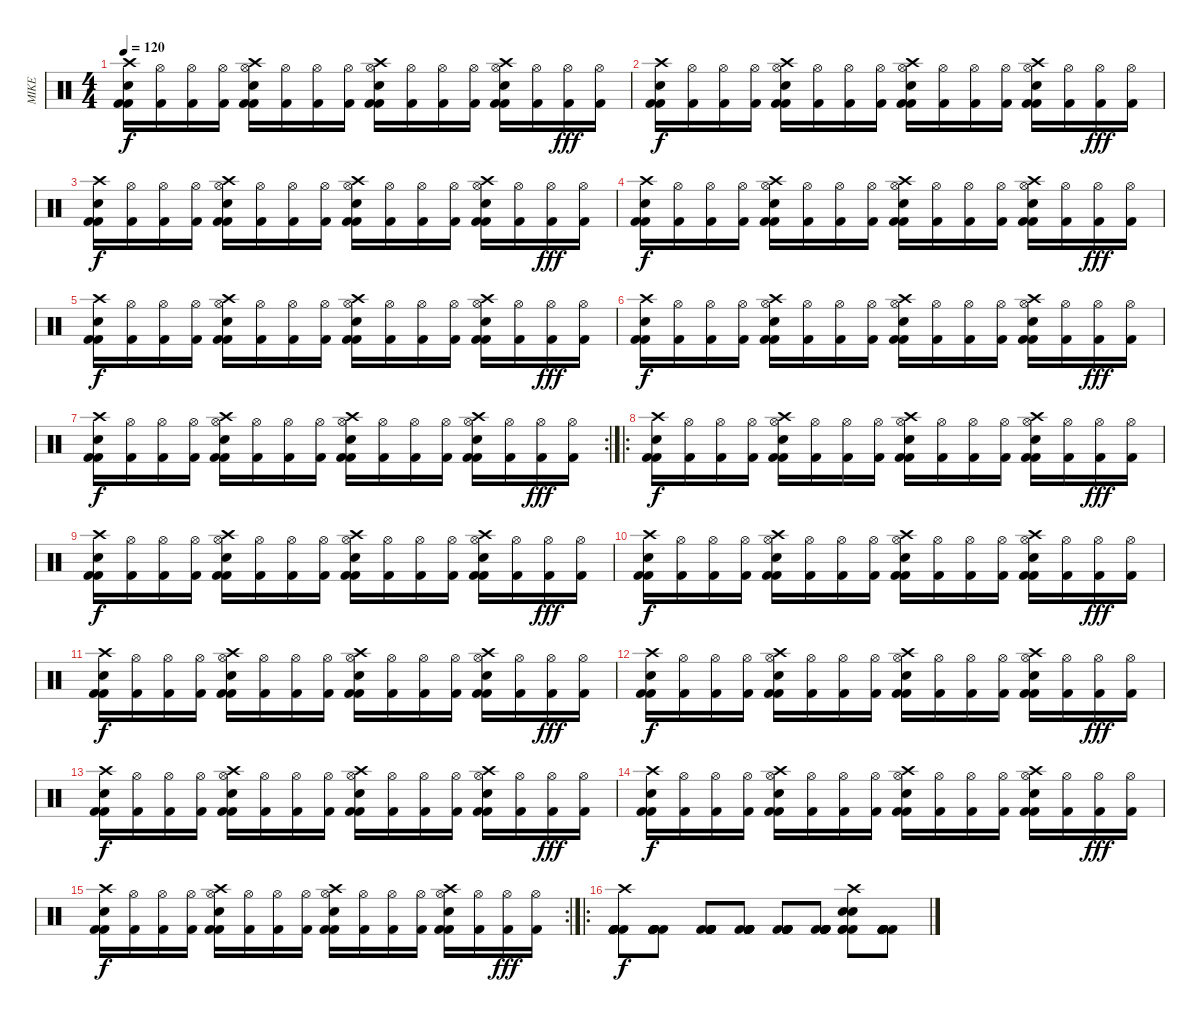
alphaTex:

\track ("MIKE" "MIKE") {instrument percussion}
\staff {score}
\articulation defaults
\ts (4 4)
\tempo 120
\clef neutral
\ks c
("Crash high (hit)" "Kick (hit) 2" "Electric Snare (hit)" "Kick (hit) 2").16{dy f} ("Hi-Hat (open)" "Kick (hit) 2").16 ("Hi-Hat (open)" "Kick (hit) 2").16 ("Hi-Hat (open)" "Kick (hit) 2").16 ("Hi-Hat (open)" "Crash high (hit)" "Kick (hit) 2" "Electric Snare (hit)" "Kick (hit) 2").16 ("Hi-Hat (open)" "Kick (hit) 2").16 ("Hi-Hat (open)" "Kick (hit) 2").16 ("Hi-Hat (open)" "Kick (hit) 2").16 ("Hi-Hat (open)" "Crash high (hit)" "Kick (hit) 2" "Electric Snare (hit)" "Kick (hit) 2").16 ("Hi-Hat (open)" "Kick (hit) 2").16 ("Hi-Hat (open)" "Kick (hit) 2").16 ("Hi-Hat (open)" "Kick (hit) 2").16 ("Hi-Hat (open)" "Crash high (hit)" "Kick (hit) 2" "Electric Snare (hit)" "Kick (hit) 2").16 ("Hi-Hat (open)" "Kick (hit) 2").16 ("Hi-Hat (open)" "Kick (hit) 2").16{dy fff} ("Hi-Hat (open)" "Kick (hit) 2").16 |
("Crash high (hit)" "Kick (hit) 2" "Electric Snare (hit)" "Kick (hit) 2").16{dy f} ("Hi-Hat (open)" "Kick (hit) 2").16 ("Hi-Hat (open)" "Kick (hit) 2").16 ("Hi-Hat (open)" "Kick (hit) 2").16 ("Hi-Hat (open)" "Crash high (hit)" "Kick (hit) 2" "Electric Snare (hit)" "Kick (hit) 2").16 ("Hi-Hat (open)" "Kick (hit) 2").16 ("Hi-Hat (open)" "Kick (hit) 2").16 ("Hi-Hat (open)" "Kick (hit) 2").16 ("Hi-Hat (open)" "Crash high (hit)" "Kick (hit) 2" "Electric Snare (hit)" "Kick (hit) 2").16 ("Hi-Hat (open)" "Kick (hit) 2").16 ("Hi-Hat (open)" "Kick (hit) 2").16 ("Hi-Hat (open)" "Kick (hit) 2").16 ("Hi-Hat (open)" "Crash high (hit)" "Kick (hit) 2" "Electric Snare (hit)" "Kick (hit) 2").16 ("Hi-Hat (open)" "Kick (hit) 2").16 ("Hi-Hat (open)" "Kick (hit) 2").16{dy fff} ("Hi-Hat (open)" "Kick (hit) 2").16 |
("Crash high (hit)" "Kick (hit) 2" "Electric Snare (hit)" "Kick (hit) 2").16{dy f} ("Hi-Hat (open)" "Kick (hit) 2").16 ("Hi-Hat (open)" "Kick (hit) 2").16 ("Hi-Hat (open)" "Kick (hit) 2").16 ("Hi-Hat (open)" "Crash high (hit)" "Kick (hit) 2" "Electric Snare (hit)" "Kick (hit) 2").16 ("Hi-Hat (open)" "Kick (hit) 2").16 ("Hi-Hat (open)" "Kick (hit) 2").16 ("Hi-Hat (open)" "Kick (hit) 2").16 ("Hi-Hat (open)" "Crash high (hit)" "Kick (hit) 2" "Electric Snare (hit)" "Kick (hit) 2").16 ("Hi-Hat (open)" "Kick (hit) 2").16 ("Hi-Hat (open)" "Kick (hit) 2").16 ("Hi-Hat (open)" "Kick (hit) 2").16 ("Hi-Hat (open)" "Crash high (hit)" "Kick (hit) 2" "Electric Snare (hit)" "Kick (hit) 2").16 ("Hi-Hat (open)" "Kick (hit) 2").16 ("Hi-Hat (open)" "Kick (hit) 2").16{dy fff} ("Hi-Hat (open)" "Kick (hit) 2").16 |
("Crash high (hit)" "Kick (hit) 2" "Electric Snare (hit)" "Kick (hit) 2").16{dy f} ("Hi-Hat (open)" "Kick (hit) 2").16 ("Hi-Hat (open)" "Kick (hit) 2").16 ("Hi-Hat (open)" "Kick (hit) 2").16 ("Hi-Hat (open)" "Crash high (hit)" "Kick (hit) 2" "Electric Snare (hit)" "Kick (hit) 2").16 ("Hi-Hat (open)" "Kick (hit) 2").16 ("Hi-Hat (open)" "Kick (hit) 2").16 ("Hi-Hat (open)" "Kick (hit) 2").16 ("Hi-Hat (open)" "Crash high (hit)" "Kick (hit) 2" "Electric Snare (hit)" "Kick (hit) 2").16 ("Hi-Hat (open)" "Kick (hit) 2").16 ("Hi-Hat (open)" "Kick (hit) 2").16 ("Hi-Hat (open)" "Kick (hit) 2").16 ("Hi-Hat (open)" "Crash high (hit)" "Kick (hit) 2" "Electric Snare (hit)" "Kick (hit) 2").16 ("Hi-Hat (open)" "Kick (hit) 2").16 ("Hi-Hat (open)" "Kick (hit) 2").16{dy fff} ("Hi-Hat (open)" "Kick (hit) 2").16 |
("Crash high (hit)" "Kick (hit) 2" "Electric Snare (hit)" "Kick (hit) 2").16{dy f} ("Hi-Hat (open)" "Kick (hit) 2").16 ("Hi-Hat (open)" "Kick (hit) 2").16 ("Hi-Hat (open)" "Kick (hit) 2").16 ("Hi-Hat (open)" "Crash high (hit)" "Kick (hit) 2" "Electric Snare (hit)" "Kick (hit) 2").16 ("Hi-Hat (open)" "Kick (hit) 2").16 ("Hi-Hat (open)" "Kick (hit) 2").16 ("Hi-Hat (open)" "Kick (hit) 2").16 ("Hi-Hat (open)" "Crash high (hit)" "Kick (hit) 2" "Electric Snare (hit)" "Kick (hit) 2").16 ("Hi-Hat (open)" "Kick (hit) 2").16 ("Hi-Hat (open)" "Kick (hit) 2").16 ("Hi-Hat (open)" "Kick (hit) 2").16 ("Hi-Hat (open)" "Crash high (hit)" "Kick (hit) 2" "Electric Snare (hit)" "Kick (hit) 2").16 ("Hi-Hat (open)" "Kick (hit) 2").16 ("Hi-Hat (open)" "Kick (hit) 2").16{dy fff} ("Hi-Hat (open)" "Kick (hit) 2").16 |
("Crash high (hit)" "Kick (hit) 2" "Electric Snare (hit)" "Kick (hit) 2").16{dy f} ("Hi-Hat (open)" "Kick (hit) 2").16 ("Hi-Hat (open)" "Kick (hit) 2").16 ("Hi-Hat (open)" "Kick (hit) 2").16 ("Hi-Hat (open)" "Crash high (hit)" "Kick (hit) 2" "Electric Snare (hit)" "Kick (hit) 2").16 ("Hi-Hat (open)" "Kick (hit) 2").16 ("Hi-Hat (open)" "Kick (hit) 2").16 ("Hi-Hat (open)" "Kick (hit) 2").16 ("Hi-Hat (open)" "Crash high (hit)" "Kick (hit) 2" "Electric Snare (hit)" "Kick (hit) 2").16 ("Hi-Hat (open)" "Kick (hit) 2").16 ("Hi-Hat (open)" "Kick (hit) 2").16 ("Hi-Hat (open)" "Kick (hit) 2").16 ("Hi-Hat (open)" "Crash high (hit)" "Kick (hit) 2" "Electric Snare (hit)" "Kick (hit) 2").16 ("Hi-Hat (open)" "Kick (hit) 2").16 ("Hi-Hat (open)" "Kick (hit) 2").16{dy fff} ("Hi-Hat (open)" "Kick (hit) 2").16 |
\rc 2
("Crash high (hit)" "Kick (hit) 2" "Electric Snare (hit)" "Kick (hit) 2").16{dy f} ("Hi-Hat (open)" "Kick (hit) 2").16 ("Hi-Hat (open)" "Kick (hit) 2").16 ("Hi-Hat (open)" "Kick (hit) 2").16 ("Hi-Hat (open)" "Crash high (hit)" "Kick (hit) 2" "Electric Snare (hit)" "Kick (hit) 2").16 ("Hi-Hat (open)" "Kick (hit) 2").16 ("Hi-Hat (open)" "Kick (hit) 2").16 ("Hi-Hat (open)" "Kick (hit) 2").16 ("Hi-Hat (open)" "Crash high (hit)" "Kick (hit) 2" "Electric Snare (hit)" "Kick (hit) 2").16 ("Hi-Hat (open)" "Kick (hit) 2").16 ("Hi-Hat (open)" "Kick (hit) 2").16 ("Hi-Hat (open)" "Kick (hit) 2").16 ("Hi-Hat (open)" "Crash high (hit)" "Kick (hit) 2" "Electric Snare (hit)" "Kick (hit) 2").16 ("Hi-Hat (open)" "Kick (hit) 2").16 ("Hi-Hat (open)" "Kick (hit) 2").16{dy fff} ("Hi-Hat (open)" "Kick (hit) 2").16 |
\ro
("Crash high (hit)" "Kick (hit) 2" "Electric Snare (hit)" "Kick (hit) 2").16{dy f} ("Hi-Hat (open)" "Kick (hit) 2").16 ("Hi-Hat (open)" "Kick (hit) 2").16 ("Hi-Hat (open)" "Kick (hit) 2").16 ("Hi-Hat (open)" "Crash high (hit)" "Kick (hit) 2" "Electric Snare (hit)" "Kick (hit) 2").16 ("Hi-Hat (open)" "Kick (hit) 2").16 ("Hi-Hat (open)" "Kick (hit) 2").16 ("Hi-Hat (open)" "Kick (hit) 2").16 ("Hi-Hat (open)" "Crash high (hit)" "Kick (hit) 2" "Electric Snare (hit)" "Kick (hit) 2").16 ("Hi-Hat (open)" "Kick (hit) 2").16 ("Hi-Hat (open)" "Kick (hit) 2").16 ("Hi-Hat (open)" "Kick (hit) 2").16 ("Hi-Hat (open)" "Crash high (hit)" "Kick (hit) 2" "Electric Snare (hit)" "Kick (hit) 2").16 ("Hi-Hat (open)" "Kick (hit) 2").16 ("Hi-Hat (open)" "Kick (hit) 2").16{dy fff} ("Hi-Hat (open)" "Kick (hit) 2").16 |
("Crash high (hit)" "Kick (hit) 2" "Electric Snare (hit)" "Kick (hit) 2").16{dy f} ("Hi-Hat (open)" "Kick (hit) 2").16 ("Hi-Hat (open)" "Kick (hit) 2").16 ("Hi-Hat (open)" "Kick (hit) 2").16 ("Hi-Hat (open)" "Crash high (hit)" "Kick (hit) 2" "Electric Snare (hit)" "Kick (hit) 2").16 ("Hi-Hat (open)" "Kick (hit) 2").16 ("Hi-Hat (open)" "Kick (hit) 2").16 ("Hi-Hat (open)" "Kick (hit) 2").16 ("Hi-Hat (open)" "Crash high (hit)" "Kick (hit) 2" "Electric Snare (hit)" "Kick (hit) 2").16 ("Hi-Hat (open)" "Kick (hit) 2").16 ("Hi-Hat (open)" "Kick (hit) 2").16 ("Hi-Hat (open)" "Kick (hit) 2").16 ("Hi-Hat (open)" "Crash high (hit)" "Kick (hit) 2" "Electric Snare (hit)" "Kick (hit) 2").16 ("Hi-Hat (open)" "Kick (hit) 2").16 ("Hi-Hat (open)" "Kick (hit) 2").16{dy fff} ("Hi-Hat (open)" "Kick (hit) 2").16 |
("Crash high (hit)" "Kick (hit) 2" "Electric Snare (hit)" "Kick (hit) 2").16{dy f} ("Hi-Hat (open)" "Kick (hit) 2").16 ("Hi-Hat (open)" "Kick (hit) 2").16 ("Hi-Hat (open)" "Kick (hit) 2").16 ("Hi-Hat (open)" "Crash high (hit)" "Kick (hit) 2" "Electric Snare (hit)" "Kick (hit) 2").16 ("Hi-Hat (open)" "Kick (hit) 2").16 ("Hi-Hat (open)" "Kick (hit) 2").16 ("Hi-Hat (open)" "Kick (hit) 2").16 ("Hi-Hat (open)" "Crash high (hit)" "Kick (hit) 2" "Electric Snare (hit)" "Kick (hit) 2").16 ("Hi-Hat (open)" "Kick (hit) 2").16 ("Hi-Hat (open)" "Kick (hit) 2").16 ("Hi-Hat (open)" "Kick (hit) 2").16 ("Hi-Hat (open)" "Crash high (hit)" "Kick (hit) 2" "Electric Snare (hit)" "Kick (hit) 2").16 ("Hi-Hat (open)" "Kick (hit) 2").16 ("Hi-Hat (open)" "Kick (hit) 2").16{dy fff} ("Hi-Hat (open)" "Kick (hit) 2").16 |
("Crash high (hit)" "Kick (hit) 2" "Electric Snare (hit)" "Kick (hit) 2").16{dy f} ("Hi-Hat (open)" "Kick (hit) 2").16 ("Hi-Hat (open)" "Kick (hit) 2").16 ("Hi-Hat (open)" "Kick (hit) 2").16 ("Hi-Hat (open)" "Crash high (hit)" "Kick (hit) 2" "Electric Snare (hit)" "Kick (hit) 2").16 ("Hi-Hat (open)" "Kick (hit) 2").16 ("Hi-Hat (open)" "Kick (hit) 2").16 ("Hi-Hat (open)" "Kick (hit) 2").16 ("Hi-Hat (open)" "Crash high (hit)" "Kick (hit) 2" "Electric Snare (hit)" "Kick (hit) 2").16 ("Hi-Hat (open)" "Kick (hit) 2").16 ("Hi-Hat (open)" "Kick (hit) 2").16 ("Hi-Hat (open)" "Kick (hit) 2").16 ("Hi-Hat (open)" "Crash high (hit)" "Kick (hit) 2" "Electric Snare (hit)" "Kick (hit) 2").16 ("Hi-Hat (open)" "Kick (hit) 2").16 ("Hi-Hat (open)" "Kick (hit) 2").16{dy fff} ("Hi-Hat (open)" "Kick (hit) 2").16 |
("Crash high (hit)" "Kick (hit) 2" "Electric Snare (hit)" "Kick (hit) 2").16{dy f} ("Hi-Hat (open)" "Kick (hit) 2").16 ("Hi-Hat (open)" "Kick (hit) 2").16 ("Hi-Hat (open)" "Kick (hit) 2").16 ("Hi-Hat (open)" "Crash high (hit)" "Kick (hit) 2" "Electric Snare (hit)" "Kick (hit) 2").16 ("Hi-Hat (open)" "Kick (hit) 2").16 ("Hi-Hat (open)" "Kick (hit) 2").16 ("Hi-Hat (open)" "Kick (hit) 2").16 ("Hi-Hat (open)" "Crash high (hit)" "Kick (hit) 2" "Electric Snare (hit)" "Kick (hit) 2").16 ("Hi-Hat (open)" "Kick (hit) 2").16 ("Hi-Hat (open)" "Kick (hit) 2").16 ("Hi-Hat (open)" "Kick (hit) 2").16 ("Hi-Hat (open)" "Crash high (hit)" "Kick (hit) 2" "Electric Snare (hit)" "Kick (hit) 2").16 ("Hi-Hat (open)" "Kick (hit) 2").16 ("Hi-Hat (open)" "Kick (hit) 2").16{dy fff} ("Hi-Hat (open)" "Kick (hit) 2").16 |
("Crash high (hit)" "Kick (hit) 2" "Electric Snare (hit)" "Kick (hit) 2").16{dy f} ("Hi-Hat (open)" "Kick (hit) 2").16 ("Hi-Hat (open)" "Kick (hit) 2").16 ("Hi-Hat (open)" "Kick (hit) 2").16 ("Hi-Hat (open)" "Crash high (hit)" "Kick (hit) 2" "Electric Snare (hit)" "Kick (hit) 2").16 ("Hi-Hat (open)" "Kick (hit) 2").16 ("Hi-Hat (open)" "Kick (hit) 2").16 ("Hi-Hat (open)" "Kick (hit) 2").16 ("Hi-Hat (open)" "Crash high (hit)" "Kick (hit) 2" "Electric Snare (hit)" "Kick (hit) 2").16 ("Hi-Hat (open)" "Kick (hit) 2").16 ("Hi-Hat (open)" "Kick (hit) 2").16 ("Hi-Hat (open)" "Kick (hit) 2").16 ("Hi-Hat (open)" "Crash high (hit)" "Kick (hit) 2" "Electric Snare (hit)" "Kick (hit) 2").16 ("Hi-Hat (open)" "Kick (hit) 2").16 ("Hi-Hat (open)" "Kick (hit) 2").16{dy fff} ("Hi-Hat (open)" "Kick (hit) 2").16 |
("Crash high (hit)" "Kick (hit) 2" "Electric Snare (hit)" "Kick (hit) 2").16{dy f} ("Hi-Hat (open)" "Kick (hit) 2").16 ("Hi-Hat (open)" "Kick (hit) 2").16 ("Hi-Hat (open)" "Kick (hit) 2").16 ("Hi-Hat (open)" "Crash high (hit)" "Kick (hit) 2" "Electric Snare (hit)" "Kick (hit) 2").16 ("Hi-Hat (open)" "Kick (hit) 2").16 ("Hi-Hat (open)" "Kick (hit) 2").16 ("Hi-Hat (open)" "Kick (hit) 2").16 ("Hi-Hat (open)" "Crash high (hit)" "Kick (hit) 2" "Electric Snare (hit)" "Kick (hit) 2").16 ("Hi-Hat (open)" "Kick (hit) 2").16 ("Hi-Hat (open)" "Kick (hit) 2").16 ("Hi-Hat (open)" "Kick (hit) 2").16 ("Hi-Hat (open)" "Crash high (hit)" "Kick (hit) 2" "Electric Snare (hit)" "Kick (hit) 2").16 ("Hi-Hat (open)" "Kick (hit) 2").16 ("Hi-Hat (open)" "Kick (hit) 2").16{dy fff} ("Hi-Hat (open)" "Kick (hit) 2").16 |
\rc 2
("Crash high (hit)" "Kick (hit) 2" "Electric Snare (hit)" "Kick (hit) 2").16{dy f} ("Hi-Hat (open)" "Kick (hit) 2").16 ("Hi-Hat (open)" "Kick (hit) 2").16 ("Hi-Hat (open)" "Kick (hit) 2").16 ("Hi-Hat (open)" "Crash high (hit)" "Kick (hit) 2" "Electric Snare (hit)" "Kick (hit) 2").16 ("Hi-Hat (open)" "Kick (hit) 2").16 ("Hi-Hat (open)" "Kick (hit) 2").16 ("Hi-Hat (open)" "Kick (hit) 2").16 ("Hi-Hat (open)" "Crash high (hit)" "Kick (hit) 2" "Electric Snare (hit)" "Kick (hit) 2").16 ("Hi-Hat (open)" "Kick (hit) 2").16 ("Hi-Hat (open)" "Kick (hit) 2").16 ("Hi-Hat (open)" "Kick (hit) 2").16 ("Hi-Hat (open)" "Crash high (hit)" "Kick (hit) 2" "Electric Snare (hit)" "Kick (hit) 2").16 ("Hi-Hat (open)" "Kick (hit) 2").16 ("Hi-Hat (open)" "Kick (hit) 2").16{dy fff} ("Hi-Hat (open)" "Kick (hit) 2").16 |
\ro
("Crash high (hit)" "Kick (hit) 2" "Kick (hit) 2" "Kick (hit) 2" "Kick (hit) 2" "Kick (hit) 2").8{dy f} ("Kick (hit) 2" "Kick (hit) 2" "Kick (hit) 2" "Kick (hit) 2" "Kick (hit) 2" "Kick (hit) 2").8 ("Kick (hit) 2" "Kick (hit) 2" "Kick (hit) 2" "Kick (hit) 2" "Kick (hit) 2" "Kick (hit) 2").8 ("Kick (hit) 2" "Kick (hit) 2" "Kick (hit) 2" "Kick (hit) 2" "Kick (hit) 2" "Kick (hit) 2").8 ("Kick (hit) 2" "Kick (hit) 2" "Kick (hit) 2" "Kick (hit) 2" "Kick (hit) 2" "Kick (hit) 2").8 ("Kick (hit) 2" "Kick (hit) 2" "Kick (hit) 2" "Kick (hit) 2" "Kick (hit) 2" "Kick (hit) 2").8 ("Crash high (hit)" "Kick (hit) 2" "Electric Snare (hit)" "Kick (hit) 2" "Electric Snare (hit)" "Kick (hit) 2").8 ("Kick (hit) 2" "Kick (hit) 2" "Kick (hit) 2" "Kick (hit) 2" "Kick (hit) 2" "Kick (hit) 2").8
